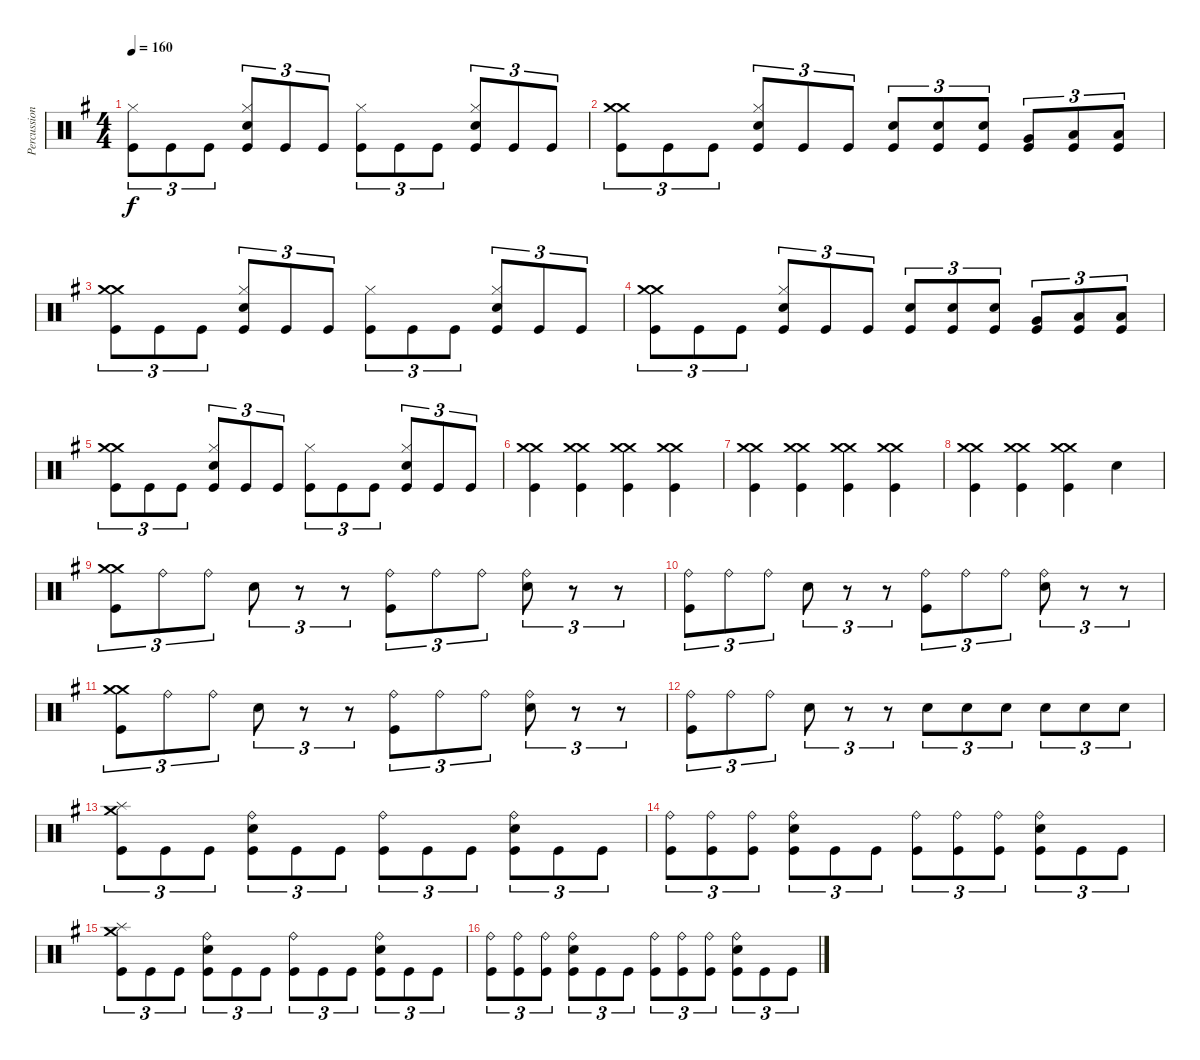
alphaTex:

\track ("Percussions" "Percussion") {instrument percussion}
\staff {score}
\articulation defaults
\ts (4 4)
\tempo 160
\clef neutral
\ks g
("Kick (hit)" "Hi-Hat (closed)").8{tu (3 2) dy f} "Kick (hit)".8{tu (3 2)} "Kick (hit)".8{tu (3 2)} ("Kick (hit)" "Electric Snare (hit)" "Hi-Hat (closed)").8{tu (3 2)} "Kick (hit)".8{tu (3 2)} "Kick (hit)".8{tu (3 2)} ("Kick (hit)" "Hi-Hat (closed)").8{tu (3 2)} "Kick (hit)".8{tu (3 2)} "Kick (hit)".8{tu (3 2)} ("Kick (hit)" "Electric Snare (hit)" "Hi-Hat (closed)").8{tu (3 2)} "Kick (hit)".8{tu (3 2)} "Kick (hit)".8{tu (3 2)} |
("Kick (hit)" "Crash medium (hit)" "Crash medium (hit)").8{tu (3 2)} "Kick (hit)".8{tu (3 2)} "Kick (hit)".8{tu (3 2)} ("Kick (hit)" "Electric Snare (hit)" "Hi-Hat (closed)").8{tu (3 2)} "Kick (hit)".8{tu (3 2)} "Kick (hit)".8{tu (3 2)} ("Kick (hit)" "Electric Snare (hit)").8{tu (3 2)} ("Kick (hit)" "Electric Snare (hit)").8{tu (3 2)} ("Kick (hit)" "Electric Snare (hit)").8{tu (3 2)} ("Kick (hit)" "Very Low Tom (hit)").8{tu (3 2)} ("Kick (hit)" "Low Tom (hit)").8{tu (3 2)} ("Kick (hit)" "Low Floor Tom (hit)").8{tu (3 2)} |
("Kick (hit)" "Crash medium (hit)" "Crash medium (hit)").8{tu (3 2)} "Kick (hit)".8{tu (3 2)} "Kick (hit)".8{tu (3 2)} ("Kick (hit)" "Electric Snare (hit)" "Hi-Hat (closed)").8{tu (3 2)} "Kick (hit)".8{tu (3 2)} "Kick (hit)".8{tu (3 2)} ("Kick (hit)" "Hi-Hat (closed)").8{tu (3 2)} "Kick (hit)".8{tu (3 2)} "Kick (hit)".8{tu (3 2)} ("Kick (hit)" "Electric Snare (hit)" "Hi-Hat (closed)").8{tu (3 2)} "Kick (hit)".8{tu (3 2)} "Kick (hit)".8{tu (3 2)} |
("Kick (hit)" "Crash medium (hit)" "Crash medium (hit)").8{tu (3 2)} "Kick (hit)".8{tu (3 2)} "Kick (hit)".8{tu (3 2)} ("Kick (hit)" "Electric Snare (hit)" "Hi-Hat (closed)").8{tu (3 2)} "Kick (hit)".8{tu (3 2)} "Kick (hit)".8{tu (3 2)} ("Kick (hit)" "Electric Snare (hit)").8{tu (3 2)} ("Kick (hit)" "Electric Snare (hit)").8{tu (3 2)} ("Kick (hit)" "Electric Snare (hit)").8{tu (3 2)} ("Kick (hit)" "Very Low Tom (hit)").8{tu (3 2)} ("Kick (hit)" "Low Tom (hit)").8{tu (3 2)} ("Kick (hit)" "Low Floor Tom (hit)").8{tu (3 2)} |
("Kick (hit)" "Crash medium (hit)" "Crash medium (hit)").8{tu (3 2)} "Kick (hit)".8{tu (3 2)} "Kick (hit)".8{tu (3 2)} ("Kick (hit)" "Electric Snare (hit)" "Hi-Hat (closed)").8{tu (3 2)} "Kick (hit)".8{tu (3 2)} "Kick (hit)".8{tu (3 2)} ("Kick (hit)" "Hi-Hat (closed)").8{tu (3 2)} "Kick (hit)".8{tu (3 2)} "Kick (hit)".8{tu (3 2)} ("Kick (hit)" "Electric Snare (hit)" "Hi-Hat (closed)").8{tu (3 2)} "Kick (hit)".8{tu (3 2)} "Kick (hit)".8{tu (3 2)} |
("Kick (hit)" "Crash medium (hit)" "Crash medium (hit)").4 ("Kick (hit)" "Crash medium (hit)" "Crash medium (hit)").4 ("Kick (hit)" "Crash medium (hit)" "Crash medium (hit)").4 ("Kick (hit)" "Crash medium (hit)" "Crash medium (hit)").4 |
("Kick (hit)" "Crash medium (hit)" "Crash medium (hit)").4 ("Kick (hit)" "Crash medium (hit)" "Crash medium (hit)").4 ("Kick (hit)" "Crash medium (hit)" "Crash medium (hit)").4 ("Kick (hit)" "Crash medium (hit)" "Crash medium (hit)").4 |
("Kick (hit)" "Crash medium (hit)" "Crash medium (hit)").4 ("Kick (hit)" "Crash medium (hit)" "Crash medium (hit)").4 ("Kick (hit)" "Crash medium (hit)" "Crash medium (hit)").4 "Electric Snare (hit)".4 |
("Kick (hit)" "Crash medium (hit)" "Crash medium (hit)").8{tu (3 2)} "Ride (bell)".8{tu (3 2)} "Ride (bell)".8{tu (3 2)} "Electric Snare (hit)".8{tu (3 2)} r.8{tu (3 2)} r.8{tu (3 2)} ("Kick (hit)" "Ride (bell)").8{tu (3 2)} "Ride (bell)".8{tu (3 2)} "Ride (bell)".8{tu (3 2)} ("Electric Snare (hit)" "Ride (bell)").8{tu (3 2)} r.8{tu (3 2)} r.8{tu (3 2)} |
("Kick (hit)" "Ride (bell)").8{tu (3 2)} "Ride (bell)".8{tu (3 2)} "Ride (bell)".8{tu (3 2)} "Electric Snare (hit)".8{tu (3 2)} r.8{tu (3 2)} r.8{tu (3 2)} ("Kick (hit)" "Ride (bell)").8{tu (3 2)} "Ride (bell)".8{tu (3 2)} "Ride (bell)".8{tu (3 2)} ("Electric Snare (hit)" "Ride (bell)").8{tu (3 2)} r.8{tu (3 2)} r.8{tu (3 2)} |
("Kick (hit)" "Crash medium (hit)" "Crash medium (hit)").8{tu (3 2)} "Ride (bell)".8{tu (3 2)} "Ride (bell)".8{tu (3 2)} "Electric Snare (hit)".8{tu (3 2)} r.8{tu (3 2)} r.8{tu (3 2)} ("Kick (hit)" "Ride (bell)").8{tu (3 2)} "Ride (bell)".8{tu (3 2)} "Ride (bell)".8{tu (3 2)} ("Electric Snare (hit)" "Ride (bell)").8{tu (3 2)} r.8{tu (3 2)} r.8{tu (3 2)} |
("Kick (hit)" "Ride (bell)").8{tu (3 2)} "Ride (bell)".8{tu (3 2)} "Ride (bell)".8{tu (3 2)} "Electric Snare (hit)".8{tu (3 2)} r.8{tu (3 2)} r.8{tu (3 2)} "Electric Snare (hit)".8{tu (3 2)} "Electric Snare (hit)".8{tu (3 2)} "Electric Snare (hit)".8{tu (3 2)} "Electric Snare (hit)".8{tu (3 2)} "Electric Snare (hit)".8{tu (3 2)} "Electric Snare (hit)".8{tu (3 2)} |
("Kick (hit)" "Splash (hit)" "Crash medium (hit)").8{tu (3 2)} "Kick (hit)".8{tu (3 2)} "Kick (hit)".8{tu (3 2)} ("Kick (hit)" "Electric Snare (hit)" "Ride (bell)").8{tu (3 2)} "Kick (hit)".8{tu (3 2)} "Kick (hit)".8{tu (3 2)} ("Kick (hit)" "Ride (bell)").8{tu (3 2)} "Kick (hit)".8{tu (3 2)} "Kick (hit)".8{tu (3 2)} ("Kick (hit)" "Electric Snare (hit)" "Ride (bell)").8{tu (3 2)} "Kick (hit)".8{tu (3 2)} "Kick (hit)".8{tu (3 2)} |
("Kick (hit)" "Ride (bell)").8{tu (3 2)} ("Kick (hit)" "Ride (bell)").8{tu (3 2)} ("Kick (hit)" "Ride (bell)").8{tu (3 2)} ("Kick (hit)" "Electric Snare (hit)" "Ride (bell)").8{tu (3 2)} "Kick (hit)".8{tu (3 2)} "Kick (hit)".8{tu (3 2)} ("Kick (hit)" "Ride (bell)").8{tu (3 2)} ("Kick (hit)" "Ride (bell)").8{tu (3 2)} ("Kick (hit)" "Ride (bell)").8{tu (3 2)} ("Kick (hit)" "Electric Snare (hit)" "Ride (bell)").8{tu (3 2)} "Kick (hit)".8{tu (3 2)} "Kick (hit)".8{tu (3 2)} |
("Kick (hit)" "Splash (hit)" "Crash medium (hit)").8{tu (3 2)} "Kick (hit)".8{tu (3 2)} "Kick (hit)".8{tu (3 2)} ("Kick (hit)" "Electric Snare (hit)" "Ride (bell)").8{tu (3 2)} "Kick (hit)".8{tu (3 2)} "Kick (hit)".8{tu (3 2)} ("Kick (hit)" "Ride (bell)").8{tu (3 2)} "Kick (hit)".8{tu (3 2)} "Kick (hit)".8{tu (3 2)} ("Kick (hit)" "Electric Snare (hit)" "Ride (bell)").8{tu (3 2)} "Kick (hit)".8{tu (3 2)} "Kick (hit)".8{tu (3 2)} |
("Kick (hit)" "Ride (bell)").8{tu (3 2)} ("Kick (hit)" "Ride (bell)").8{tu (3 2)} ("Kick (hit)" "Ride (bell)").8{tu (3 2)} ("Kick (hit)" "Electric Snare (hit)" "Ride (bell)").8{tu (3 2)} "Kick (hit)".8{tu (3 2)} "Kick (hit)".8{tu (3 2)} ("Kick (hit)" "Ride (bell)").8{tu (3 2)} ("Kick (hit)" "Ride (bell)").8{tu (3 2)} ("Kick (hit)" "Ride (bell)").8{tu (3 2)} ("Kick (hit)" "Electric Snare (hit)" "Ride (bell)").8{tu (3 2)} "Kick (hit)".8{tu (3 2)} "Kick (hit)".8{tu (3 2)}
